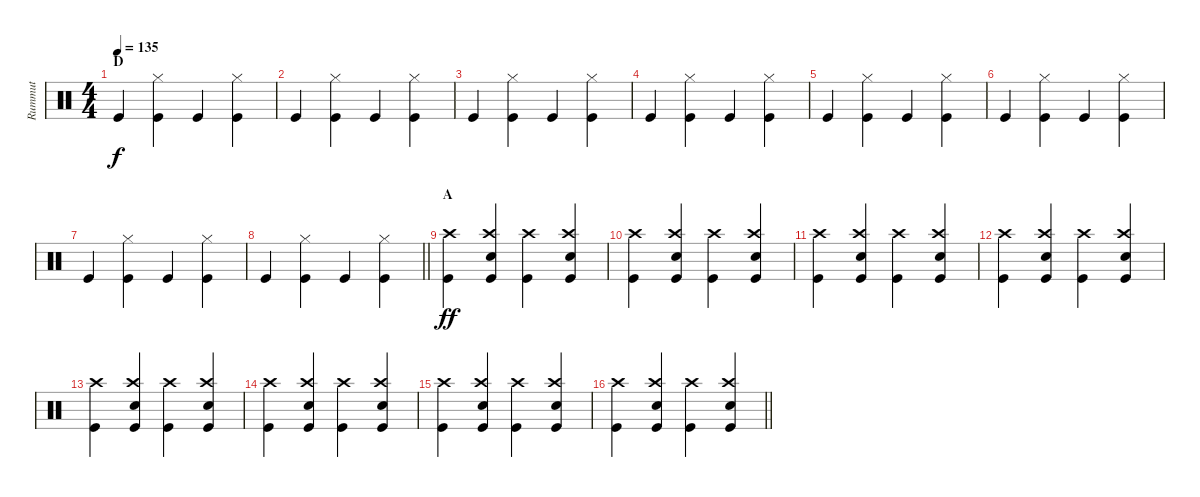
\track ("Rummut" "Rummut") {instrument percussion}
\staff {score}
\articulation defaults
\ts (4 4)
\section ("" "D")
\tempo 135
\clef neutral
\ks c "Kick (hit)".4{dy f}
("Hi-Hat (closed)" "Kick (hit)").4 "Kick (hit)".4 ("Hi-Hat (closed)" "Kick (hit)").4 |
"Kick (hit)".4 ("Hi-Hat (closed)" "Kick (hit)").4 "Kick (hit)".4 ("Hi-Hat (closed)" "Kick (hit)").4 |
"Kick (hit)".4 ("Hi-Hat (closed)" "Kick (hit)").4 "Kick (hit)".4 ("Hi-Hat (closed)" "Kick (hit)").4 |
"Kick (hit)".4 ("Hi-Hat (closed)" "Kick (hit)").4 "Kick (hit)".4 ("Hi-Hat (closed)" "Kick (hit)").4 |
"Kick (hit)".4 ("Hi-Hat (closed)" "Kick (hit)").4 "Kick (hit)".4 ("Hi-Hat (closed)" "Kick (hit)").4 |
"Kick (hit)".4 ("Hi-Hat (closed)" "Kick (hit)").4 "Kick (hit)".4 ("Hi-Hat (closed)" "Kick (hit)").4 |
"Kick (hit)".4 ("Hi-Hat (closed)" "Kick (hit)").4 "Kick (hit)".4 ("Hi-Hat (closed)" "Kick (hit)").4 |
\barLineRight lightlight "Kick (hit)".4
("Hi-Hat (closed)" "Kick (hit)").4 "Kick (hit)".4 ("Hi-Hat (closed)" "Kick (hit)").4 |
\section ("" "A")
("Crash high (hit)" "Kick (hit)").4{dy ff} ("Crash high (hit)" "Electric Snare (hit)" "Kick (hit)").4 ("Crash high (hit)" "Kick (hit)").4 ("Crash high (hit)" "Electric Snare (hit)" "Kick (hit)").4 |
("Crash high (hit)" "Kick (hit)").4 ("Crash high (hit)" "Electric Snare (hit)" "Kick (hit)").4 ("Crash high (hit)" "Kick (hit)").4 ("Crash high (hit)" "Electric Snare (hit)" "Kick (hit)").4 |
("Crash high (hit)" "Kick (hit)").4 ("Crash high (hit)" "Electric Snare (hit)" "Kick (hit)").4 ("Crash high (hit)" "Kick (hit)").4 ("Crash high (hit)" "Electric Snare (hit)" "Kick (hit)").4 |
("Crash high (hit)" "Kick (hit)").4 ("Crash high (hit)" "Electric Snare (hit)" "Kick (hit)").4 ("Crash high (hit)" "Kick (hit)").4 ("Crash high (hit)" "Electric Snare (hit)" "Kick (hit)").4 |
("Crash high (hit)" "Kick (hit)").4 ("Crash high (hit)" "Electric Snare (hit)" "Kick (hit)").4 ("Crash high (hit)" "Kick (hit)").4 ("Crash high (hit)" "Electric Snare (hit)" "Kick (hit)").4 |
("Crash high (hit)" "Kick (hit)").4 ("Crash high (hit)" "Electric Snare (hit)" "Kick (hit)").4 ("Crash high (hit)" "Kick (hit)").4 ("Crash high (hit)" "Electric Snare (hit)" "Kick (hit)").4 |
("Crash high (hit)" "Kick (hit)").4 ("Crash high (hit)" "Electric Snare (hit)" "Kick (hit)").4 ("Crash high (hit)" "Kick (hit)").4 ("Crash high (hit)" "Electric Snare (hit)" "Kick (hit)").4 |
\barLineRight lightlight
("Crash high (hit)" "Kick (hit)").4 ("Crash high (hit)" "Electric Snare (hit)" "Kick (hit)").4 ("Crash high (hit)" "Kick (hit)").4 ("Crash high (hit)" "Electric Snare (hit)" "Kick (hit)").4
